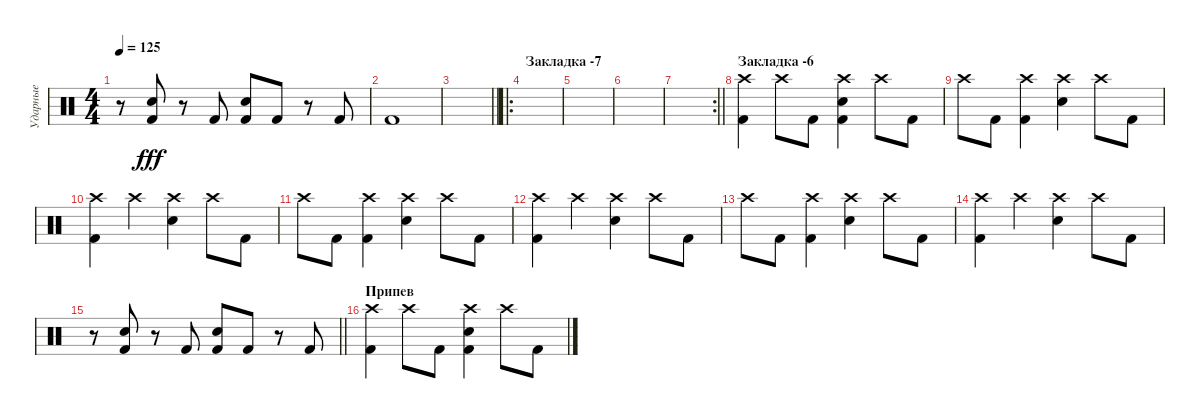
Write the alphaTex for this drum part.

\track ("Ударные" "Ударные") {instrument percussion}
\staff {score}
\articulation defaults
\ts (4 4)
\tempo 125
\clef neutral
\ks c
r.8{dy fff} ("Snare (hit) 2" "Kick (hit) 2").8 r.8 "Kick (hit) 2".8 ("Snare (hit) 2" "Kick (hit) 2").8 "Kick (hit) 2".8 r.8 "Kick (hit) 2".8 |
"Kick (hit) 2".1 |
\barLineRight lightlight
|
\ro
\section ("" "Закладка -7")
|
|
|
\rc 2
\barLineRight lightlight
|
\section ("" "Закладка -6")
("Crash high (hit)" "Kick (hit) 2").4 "Crash high (hit)".8 "Kick (hit) 2".8 ("Crash high (hit)" "Snare (hit) 2" "Kick (hit) 2").4 "Crash high (hit)".8 "Kick (hit) 2".8 |
"Crash high (hit)".8 "Kick (hit) 2".8 ("Crash high (hit)" "Kick (hit) 2").4 ("Crash high (hit)" "Snare (hit) 2").4 "Crash high (hit)".8 "Kick (hit) 2".8 |
("Crash high (hit)" "Kick (hit) 2").4 "Crash high (hit)".4 ("Crash high (hit)" "Snare (hit) 2").4 "Crash high (hit)".8 "Kick (hit) 2".8 |
"Crash high (hit)".8 "Kick (hit) 2".8 ("Crash high (hit)" "Kick (hit) 2").4 ("Crash high (hit)" "Snare (hit) 2").4 "Crash high (hit)".8 "Kick (hit) 2".8 |
("Crash high (hit)" "Kick (hit) 2").4 "Crash high (hit)".4 ("Crash high (hit)" "Snare (hit) 2").4 "Crash high (hit)".8 "Kick (hit) 2".8 |
"Crash high (hit)".8 "Kick (hit) 2".8 ("Crash high (hit)" "Kick (hit) 2").4 ("Crash high (hit)" "Snare (hit) 2").4 "Crash high (hit)".8 "Kick (hit) 2".8 |
("Crash high (hit)" "Kick (hit) 2").4 "Crash high (hit)".4 ("Crash high (hit)" "Snare (hit) 2").4 "Crash high (hit)".8 "Kick (hit) 2".8 |
\barLineRight lightlight
r.8 ("Snare (hit) 2" "Kick (hit) 2").8 r.8 "Kick (hit) 2".8 ("Snare (hit) 2" "Kick (hit) 2").8 "Kick (hit) 2".8 r.8 "Kick (hit) 2".8 |
\section ("" "Припев")
("Crash high (hit)" "Kick (hit) 2").4 "Crash high (hit)".8 "Kick (hit) 2".8 ("Crash high (hit)" "Snare (hit) 2" "Kick (hit) 2").4 "Crash high (hit)".8 "Kick (hit) 2".8
